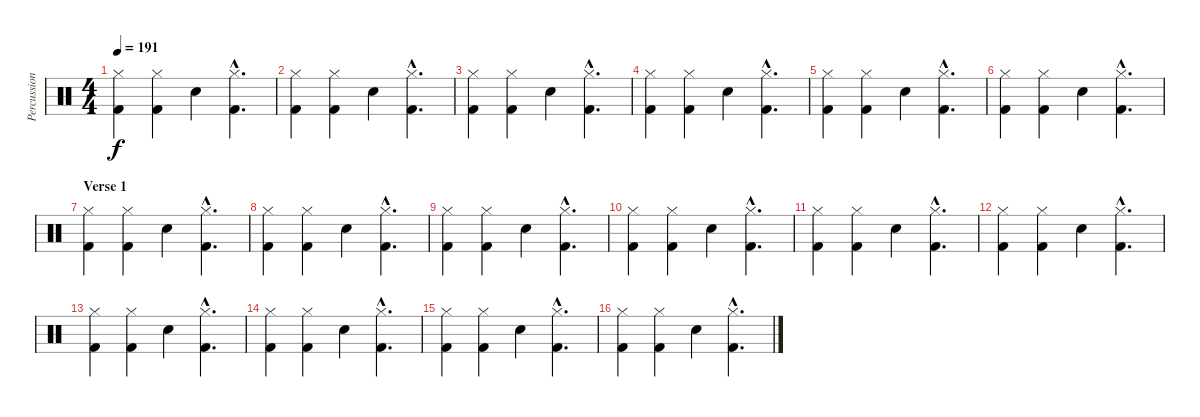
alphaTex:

\track ("Percussion" "Percussion") {instrument percussion}
\staff {score}
\articulation defaults
\ts (4 4)
\tempo 191
\clef neutral
\ks c
("Hi-Hat (closed)" "Kick (hit) 2").4{dy f} ("Hi-Hat (closed)" "Kick (hit) 2").4 "Electric Snare (hit)".4 ("Hi-Hat (closed)"{hac} "Kick (hit) 2"{hac}).4{d} |
("Hi-Hat (closed)" "Kick (hit) 2").4 ("Hi-Hat (closed)" "Kick (hit) 2").4 "Electric Snare (hit)".4 ("Hi-Hat (closed)"{hac} "Kick (hit) 2"{hac}).4{d} |
("Hi-Hat (closed)" "Kick (hit) 2").4 ("Hi-Hat (closed)" "Kick (hit) 2").4 "Electric Snare (hit)".4 ("Hi-Hat (closed)"{hac} "Kick (hit) 2"{hac}).4{d} |
("Hi-Hat (closed)" "Kick (hit) 2").4 ("Hi-Hat (closed)" "Kick (hit) 2").4 "Electric Snare (hit)".4 ("Hi-Hat (closed)"{hac} "Kick (hit) 2"{hac}).4{d} |
("Hi-Hat (closed)" "Kick (hit) 2").4 ("Hi-Hat (closed)" "Kick (hit) 2").4 "Electric Snare (hit)".4 ("Hi-Hat (closed)"{hac} "Kick (hit) 2"{hac}).4{d} |
("Hi-Hat (closed)" "Kick (hit) 2").4 ("Hi-Hat (closed)" "Kick (hit) 2").4 "Electric Snare (hit)".4 ("Hi-Hat (closed)"{hac} "Kick (hit) 2"{hac}).4{d} |
\section ("" "Verse 1")
("Hi-Hat (closed)" "Kick (hit) 2").4 ("Hi-Hat (closed)" "Kick (hit) 2").4 "Electric Snare (hit)".4 ("Hi-Hat (closed)"{hac} "Kick (hit) 2"{hac}).4{d} |
("Hi-Hat (closed)" "Kick (hit) 2").4 ("Hi-Hat (closed)" "Kick (hit) 2").4 "Electric Snare (hit)".4 ("Hi-Hat (closed)"{hac} "Kick (hit) 2"{hac}).4{d} |
("Hi-Hat (closed)" "Kick (hit) 2").4 ("Hi-Hat (closed)" "Kick (hit) 2").4 "Electric Snare (hit)".4 ("Hi-Hat (closed)"{hac} "Kick (hit) 2"{hac}).4{d} |
("Hi-Hat (closed)" "Kick (hit) 2").4 ("Hi-Hat (closed)" "Kick (hit) 2").4 "Electric Snare (hit)".4 ("Hi-Hat (closed)"{hac} "Kick (hit) 2"{hac}).4{d} |
("Hi-Hat (closed)" "Kick (hit) 2").4 ("Hi-Hat (closed)" "Kick (hit) 2").4 "Electric Snare (hit)".4 ("Hi-Hat (closed)"{hac} "Kick (hit) 2"{hac}).4{d} |
("Hi-Hat (closed)" "Kick (hit) 2").4 ("Hi-Hat (closed)" "Kick (hit) 2").4 "Electric Snare (hit)".4 ("Hi-Hat (closed)"{hac} "Kick (hit) 2"{hac}).4{d} |
("Hi-Hat (closed)" "Kick (hit) 2").4 ("Hi-Hat (closed)" "Kick (hit) 2").4 "Electric Snare (hit)".4 ("Hi-Hat (closed)"{hac} "Kick (hit) 2"{hac}).4{d} |
("Hi-Hat (closed)" "Kick (hit) 2").4 ("Hi-Hat (closed)" "Kick (hit) 2").4 "Electric Snare (hit)".4 ("Hi-Hat (closed)"{hac} "Kick (hit) 2"{hac}).4{d} |
("Hi-Hat (closed)" "Kick (hit) 2").4 ("Hi-Hat (closed)" "Kick (hit) 2").4 "Electric Snare (hit)".4 ("Hi-Hat (closed)"{hac} "Kick (hit) 2"{hac}).4{d} |
("Hi-Hat (closed)" "Kick (hit) 2").4 ("Hi-Hat (closed)" "Kick (hit) 2").4 "Electric Snare (hit)".4 ("Hi-Hat (closed)"{hac} "Kick (hit) 2"{hac}).4{d}
